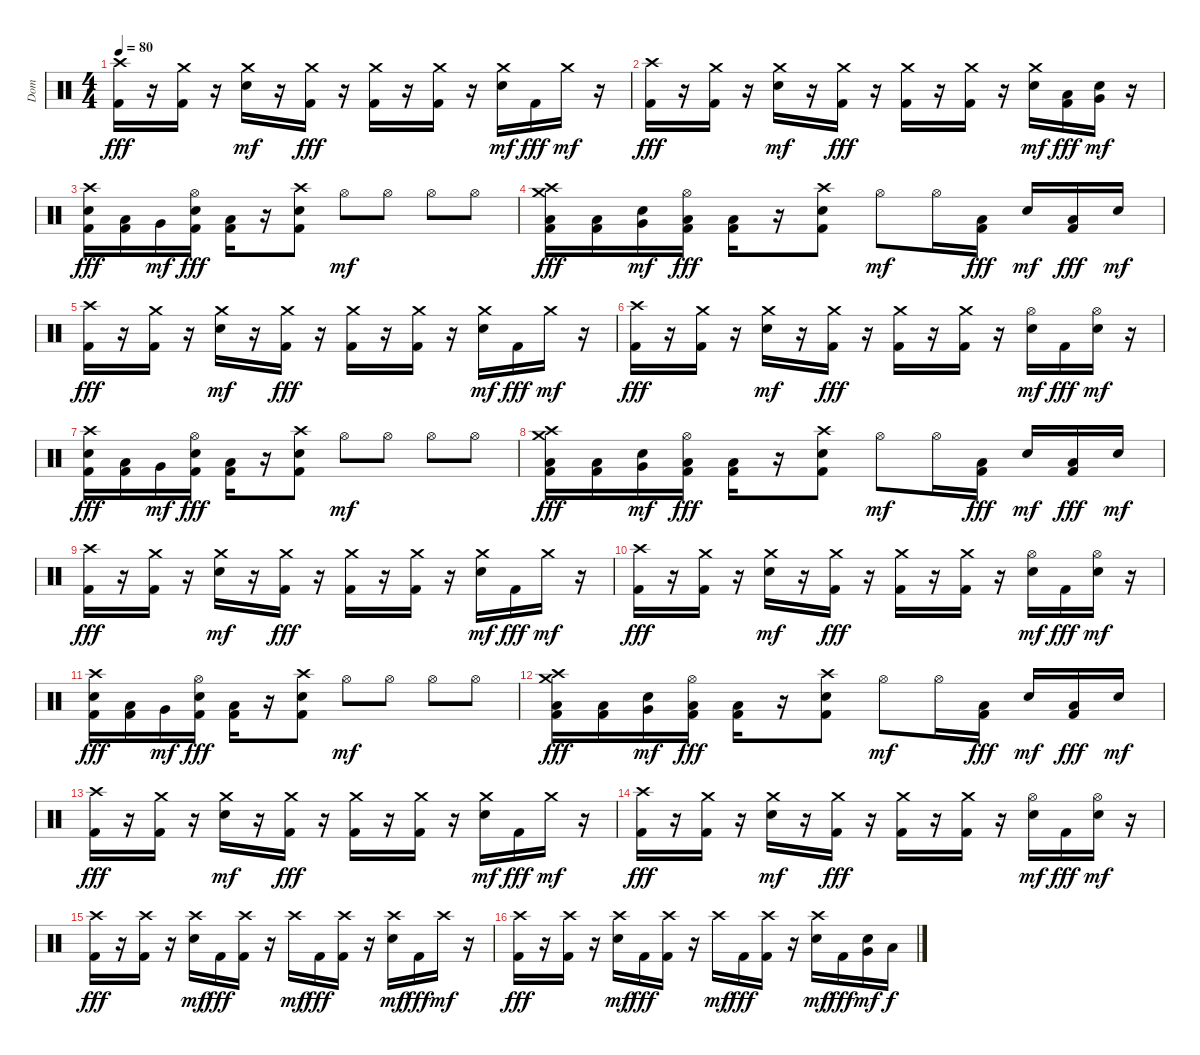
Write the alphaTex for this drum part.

\track ("Dom" "Dom") {instrument percussion}
\staff {score}
\articulation defaults
\ts (4 4)
\tempo 80
\clef neutral
\ks c
("Crash high (hit)" "Kick (hit) 2").16{dy fff} r.16 ("Crash medium (hit)" "Kick (hit) 2").16 r.16 ("Crash medium (hit)" "Electric Snare (hit)").16{dy mf} r.16 ("Crash medium (hit)" "Kick (hit) 2").16{dy fff} r.16 ("Crash medium (hit)" "Kick (hit) 2").16 r.16 ("Crash medium (hit)" "Kick (hit) 2").16 r.16 ("Crash medium (hit)" "Electric Snare (hit)").16{dy mf} "Kick (hit) 2".16{dy fff} "Crash medium (hit)".16{dy mf} r.16 |
("Crash high (hit)" "Kick (hit) 2").16{dy fff} r.16 ("Crash medium (hit)" "Kick (hit) 2").16 r.16 ("Crash medium (hit)" "Electric Snare (hit)").16{dy mf} r.16 ("Crash medium (hit)" "Kick (hit) 2").16{dy fff} r.16 ("Crash medium (hit)" "Kick (hit) 2").16 r.16 ("Crash medium (hit)" "Kick (hit) 2").16 r.16 ("Crash medium (hit)" "Electric Snare (hit)").16{dy mf} ("Low Tom (hit)" "Kick (hit) 2").16{dy fff} ("Electric Snare (hit)" "Very Low Tom (hit)").16{dy mf} r.16 |
("Crash high (hit)" "Electric Snare (hit)" "Kick (hit) 2").16{dy fff} ("Low Floor Tom (hit)" "Kick (hit) 2").16 "Very Low Tom (hit)".16{dy mf} ("Hi-Hat (open)" "Electric Snare (hit)" "Kick (hit) 2").16{dy fff} ("Low Floor Tom (hit)" "Kick (hit) 2").16 r.16 ("Crash high (hit)" "Electric Snare (hit)" "Kick (hit) 2").8 "Hi-Hat (open)".8{dy mf} "Hi-Hat (open)".8 "Hi-Hat (open)".8 "Hi-Hat (open)".8 |
("Crash high (hit)" "Crash medium (hit)" "Low Floor Tom (hit)" "Kick (hit) 2").16{dy fff} ("Low Floor Tom (hit)" "Kick (hit) 2").16 ("Electric Snare (hit)" "Very Low Tom (hit)").16{dy mf} ("Hi-Hat (open)" "Low Floor Tom (hit)" "Kick (hit) 2").16{dy fff} ("Low Floor Tom (hit)" "Kick (hit) 2").16 r.16 ("Crash high (hit)" "Electric Snare (hit)" "Kick (hit) 2").8 "Hi-Hat (open)".8{dy mf} "Hi-Hat (open)".16 ("Low Floor Tom (hit)" "Kick (hit) 2").16{dy fff} "Electric Snare (hit)".16{dy mf} ("Low Tom (hit)" "Kick (hit) 2").16{dy fff} "Electric Snare (hit)".16{dy mf} |
("Crash high (hit)" "Kick (hit) 2").16{dy fff} r.16 ("Crash medium (hit)" "Kick (hit) 2").16 r.16 ("Crash medium (hit)" "Electric Snare (hit)").16{dy mf} r.16 ("Crash medium (hit)" "Kick (hit) 2").16{dy fff} r.16 ("Crash medium (hit)" "Kick (hit) 2").16 r.16 ("Crash medium (hit)" "Kick (hit) 2").16 r.16 ("Crash medium (hit)" "Electric Snare (hit)").16{dy mf} "Kick (hit) 2".16{dy fff} "Crash medium (hit)".16{dy mf} r.16 |
("Crash high (hit)" "Kick (hit) 2").16{dy fff} r.16 ("Crash medium (hit)" "Kick (hit) 2").16 r.16 ("Crash medium (hit)" "Electric Snare (hit)").16{dy mf} r.16 ("Crash medium (hit)" "Kick (hit) 2").16{dy fff} r.16 ("Crash medium (hit)" "Kick (hit) 2").16 r.16 ("Crash medium (hit)" "Kick (hit) 2").16 r.16 ("Hi-Hat (open)" "Electric Snare (hit)").16{dy mf} "Kick (hit) 2".16{dy fff} ("Hi-Hat (open)" "Electric Snare (hit)").16{dy mf} r.16 |
("Crash high (hit)" "Electric Snare (hit)" "Kick (hit) 2").16{dy fff} ("Low Floor Tom (hit)" "Kick (hit) 2").16 "Very Low Tom (hit)".16{dy mf} ("Hi-Hat (open)" "Electric Snare (hit)" "Kick (hit) 2").16{dy fff} ("Low Floor Tom (hit)" "Kick (hit) 2").16 r.16 ("Crash high (hit)" "Electric Snare (hit)" "Kick (hit) 2").8 "Hi-Hat (open)".8{dy mf} "Hi-Hat (open)".8 "Hi-Hat (open)".8 "Hi-Hat (open)".8 |
("Crash high (hit)" "Crash medium (hit)" "Low Floor Tom (hit)" "Kick (hit) 2").16{dy fff} ("Low Floor Tom (hit)" "Kick (hit) 2").16 ("Electric Snare (hit)" "Very Low Tom (hit)").16{dy mf} ("Hi-Hat (open)" "Low Floor Tom (hit)" "Kick (hit) 2").16{dy fff} ("Low Floor Tom (hit)" "Kick (hit) 2").16 r.16 ("Crash high (hit)" "Electric Snare (hit)" "Kick (hit) 2").8 "Hi-Hat (open)".8{dy mf} "Hi-Hat (open)".16 ("Low Floor Tom (hit)" "Kick (hit) 2").16{dy fff} "Electric Snare (hit)".16{dy mf} ("Low Tom (hit)" "Kick (hit) 2").16{dy fff} "Electric Snare (hit)".16{dy mf} |
("Crash high (hit)" "Kick (hit) 2").16{dy fff} r.16 ("Crash medium (hit)" "Kick (hit) 2").16 r.16 ("Crash medium (hit)" "Electric Snare (hit)").16{dy mf} r.16 ("Crash medium (hit)" "Kick (hit) 2").16{dy fff} r.16 ("Crash medium (hit)" "Kick (hit) 2").16 r.16 ("Crash medium (hit)" "Kick (hit) 2").16 r.16 ("Crash medium (hit)" "Electric Snare (hit)").16{dy mf} "Kick (hit) 2".16{dy fff} "Crash medium (hit)".16{dy mf} r.16 |
("Crash high (hit)" "Kick (hit) 2").16{dy fff} r.16 ("Crash medium (hit)" "Kick (hit) 2").16 r.16 ("Crash medium (hit)" "Electric Snare (hit)").16{dy mf} r.16 ("Crash medium (hit)" "Kick (hit) 2").16{dy fff} r.16 ("Crash medium (hit)" "Kick (hit) 2").16 r.16 ("Crash medium (hit)" "Kick (hit) 2").16 r.16 ("Hi-Hat (open)" "Electric Snare (hit)").16{dy mf} "Kick (hit) 2".16{dy fff} ("Hi-Hat (open)" "Electric Snare (hit)").16{dy mf} r.16 |
("Crash high (hit)" "Electric Snare (hit)" "Kick (hit) 2").16{dy fff} ("Low Floor Tom (hit)" "Kick (hit) 2").16 "Very Low Tom (hit)".16{dy mf} ("Hi-Hat (open)" "Electric Snare (hit)" "Kick (hit) 2").16{dy fff} ("Low Floor Tom (hit)" "Kick (hit) 2").16 r.16 ("Crash high (hit)" "Electric Snare (hit)" "Kick (hit) 2").8 "Hi-Hat (open)".8{dy mf} "Hi-Hat (open)".8 "Hi-Hat (open)".8 "Hi-Hat (open)".8 |
("Crash high (hit)" "Crash medium (hit)" "Low Floor Tom (hit)" "Kick (hit) 2").16{dy fff} ("Low Floor Tom (hit)" "Kick (hit) 2").16 ("Electric Snare (hit)" "Very Low Tom (hit)").16{dy mf} ("Hi-Hat (open)" "Low Floor Tom (hit)" "Kick (hit) 2").16{dy fff} ("Low Floor Tom (hit)" "Kick (hit) 2").16 r.16 ("Crash high (hit)" "Electric Snare (hit)" "Kick (hit) 2").8 "Hi-Hat (open)".8{dy mf} "Hi-Hat (open)".16 ("Low Floor Tom (hit)" "Kick (hit) 2").16{dy fff} "Electric Snare (hit)".16{dy mf} ("Low Tom (hit)" "Kick (hit) 2").16{dy fff} "Electric Snare (hit)".16{dy mf} |
("Crash high (hit)" "Kick (hit) 2").16{dy fff} r.16 ("Crash medium (hit)" "Kick (hit) 2").16 r.16 ("Crash medium (hit)" "Electric Snare (hit)").16{dy mf} r.16 ("Crash medium (hit)" "Kick (hit) 2").16{dy fff} r.16 ("Crash medium (hit)" "Kick (hit) 2").16 r.16 ("Crash medium (hit)" "Kick (hit) 2").16 r.16 ("Crash medium (hit)" "Electric Snare (hit)").16{dy mf} "Kick (hit) 2".16{dy fff} "Crash medium (hit)".16{dy mf} r.16 |
("Crash high (hit)" "Kick (hit) 2").16{dy fff} r.16 ("Crash medium (hit)" "Kick (hit) 2").16 r.16 ("Crash medium (hit)" "Electric Snare (hit)").16{dy mf} r.16 ("Crash medium (hit)" "Kick (hit) 2").16{dy fff} r.16 ("Crash medium (hit)" "Kick (hit) 2").16 r.16 ("Crash medium (hit)" "Kick (hit) 2").16 r.16 ("Hi-Hat (open)" "Electric Snare (hit)").16{dy mf} "Kick (hit) 2".16{dy fff} ("Hi-Hat (open)" "Electric Snare (hit)").16{dy mf} r.16 |
("Crash high (hit)" "Kick (hit) 2").16{dy fff} r.16 ("Crash high (hit)" "Kick (hit) 2").16 r.16 ("Crash high (hit)" "Electric Snare (hit)").16{dy mf} "Kick (hit) 2".16{dy fff} ("Crash high (hit)" "Kick (hit) 2").16 r.16 "Crash high (hit)".16{dy mf} "Kick (hit) 2".16{dy fff} ("Crash high (hit)" "Kick (hit) 2").16 r.16 ("Crash high (hit)" "Electric Snare (hit)").16{dy mf} "Kick (hit) 2".16{dy fff} "Crash high (hit)".16{dy mf} r.16 |
("Crash high (hit)" "Kick (hit) 2").16{dy fff} r.16 ("Crash high (hit)" "Kick (hit) 2").16 r.16 ("Crash high (hit)" "Electric Snare (hit)").16{dy mf} "Kick (hit) 2".16{dy fff} ("Crash high (hit)" "Kick (hit) 2").16 r.16 "Crash high (hit)".16{dy mf} "Kick (hit) 2".16{dy fff} ("Crash high (hit)" "Kick (hit) 2").16 r.16 ("Crash high (hit)" "Electric Snare (hit)").16{dy mf} "Kick (hit) 2".16{dy fff} ("Electric Snare (hit)" "Very Low Tom (hit)").16{dy mf} "Low Floor Tom (hit)".16{dy f}
